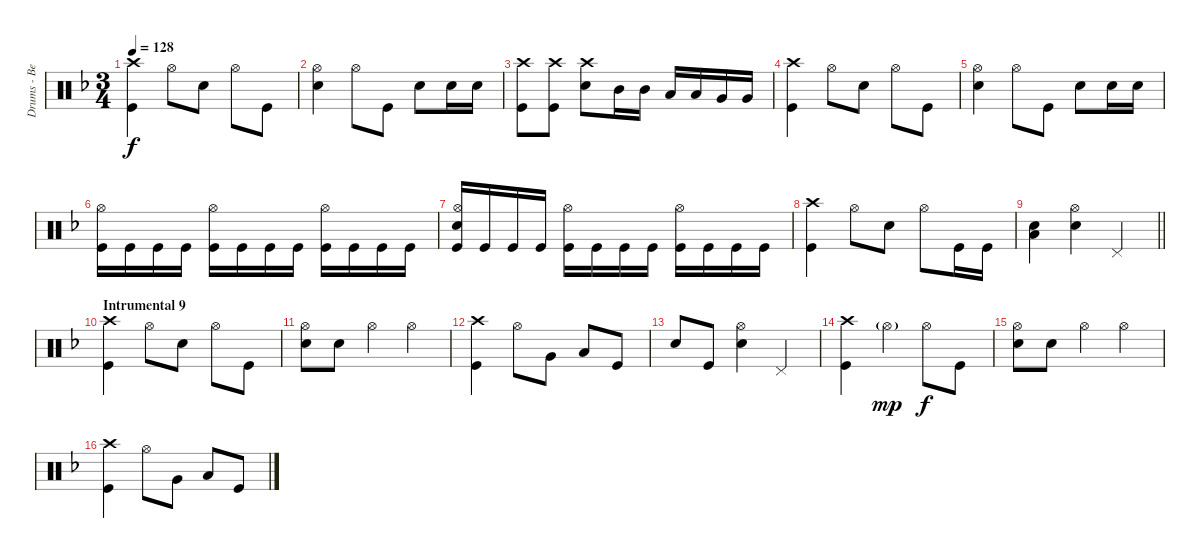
\track ("Drums - Ben Johnston" "Drums - Be") {instrument percussion}
\staff {score}
\articulation defaults
\ts (3 4)
\tempo 128
\clef neutral
\ks dminor
("Crash high (hit)" "Kick (hit)").4{dy f} "Hi-Hat (open)".8 "Snare (hit) 2".8 "Hi-Hat (open)".8 "Kick (hit)".8 |
("Hi-Hat (open)" "Snare (hit) 2").4 "Hi-Hat (open)".8 "Kick (hit)".8 "Snare (hit) 2".8 "Snare (hit) 2".16 "Snare (hit) 2".16 |
("Crash high (hit)" "Kick (hit)").8 ("Crash high (hit)" "Kick (hit)").8 ("Crash high (hit)" "Snare (hit) 2").8 "Mid Tom (hit)".16 "Mid Tom (hit)".16 "Low Tom (hit)".16 "Low Tom (hit)".16 "Very Low Tom (hit)".16 "Very Low Tom (hit)".16 |
("Crash high (hit)" "Kick (hit)").4 "Hi-Hat (open)".8 "Snare (hit) 2".8 "Hi-Hat (open)".8 "Kick (hit)".8 |
("Hi-Hat (open)" "Snare (hit) 2").4 "Hi-Hat (open)".8 "Kick (hit)".8 "Snare (hit) 2".8 "Snare (hit) 2".16 "Snare (hit) 2".16 |
("Hi-Hat (open)" "Kick (hit)").16 "Kick (hit)".16 "Kick (hit)".16 "Kick (hit)".16 ("Hi-Hat (open)" "Kick (hit)").16 "Kick (hit)".16 "Kick (hit)".16 "Kick (hit)".16 ("Hi-Hat (open)" "Kick (hit)").16 "Kick (hit)".16 "Kick (hit)".16 "Kick (hit)".16 |
("Hi-Hat (open)" "Snare (hit) 2" "Kick (hit)").16 "Kick (hit)".16 "Kick (hit)".16 "Kick (hit)".16 ("Hi-Hat (open)" "Kick (hit)").16 "Kick (hit)".16 "Kick (hit)".16 "Kick (hit)".16 ("Hi-Hat (open)" "Kick (hit)").16 "Kick (hit)".16 "Kick (hit)".16 "Kick (hit)".16 |
("Crash high (hit)" "Kick (hit)").4 "Hi-Hat (open)".8 "Snare (hit) 2".8 "Hi-Hat (open)".8 "Kick (hit)".16 "Kick (hit)".16 |
\barLineRight lightlight
("Low Floor Tom (hit)" "Snare (hit) 2").4 ("Hi-Hat (open)" "Snare (hit) 2").4 "Pedal Hi-Hat (hit)".4 |
\section ("" "Intrumental 9")
("Crash high (hit)" "Kick (hit)").4 "Hi-Hat (open)".8 "Snare (hit) 2".8 "Hi-Hat (open)".8 "Kick (hit)".8 |
("Hi-Hat (open)" "Snare (hit) 2").8 "Snare (hit) 2".8 "Hi-Hat (open)".4 "Hi-Hat (open)".4 |
("Crash high (hit)" "Kick (hit)").4 "Hi-Hat (open)".8 "Very Low Tom (hit)".8 "Low Floor Tom (hit)".8 "Kick (hit)".8 |
"Snare (hit) 2".8 "Kick (hit)".8 ("Hi-Hat (open)" "Snare (hit) 2").4 "Pedal Hi-Hat (hit)".4 |
("Crash high (hit)" "Kick (hit)").4 "Hi-Hat (open)"{g}.4{dy mp} "Hi-Hat (open)".8{dy f} "Kick (hit)".8 |
("Hi-Hat (open)" "Snare (hit) 2").8 "Snare (hit) 2".8 "Hi-Hat (open)".4 "Hi-Hat (open)".4 |
("Crash high (hit)" "Kick (hit)").4 "Hi-Hat (open)".8 "Very Low Tom (hit)".8 "Low Floor Tom (hit)".8 "Kick (hit)".8
